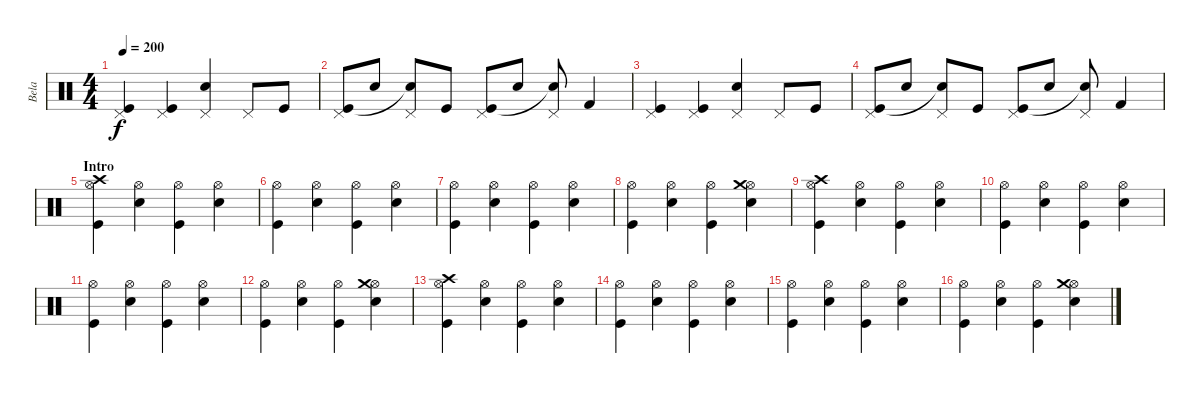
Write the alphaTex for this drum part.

\track ("Bela" "Bela") {instrument percussion}
\staff {score}
\articulation defaults
\ts (4 4)
\tempo 200
\clef neutral
\ks c
("Pedal Hi-Hat (hit)" "Kick (hit)").4{dy f} ("Pedal Hi-Hat (hit)" "Kick (hit)").4 ("Pedal Hi-Hat (hit)" "Electric Snare (hit)").4 "Pedal Hi-Hat (hit)".8 "Kick (hit)".8 |
("Pedal Hi-Hat (hit)" "Kick (hit)").8 "Electric Snare (hit)".8 ("Pedal Hi-Hat (hit)" "Electric Snare (hit)"{t}).8 "Kick (hit)".8 ("Pedal Hi-Hat (hit)" "Kick (hit)").8 "Electric Snare (hit)".8 ("Pedal Hi-Hat (hit)" "Electric Snare (hit)"{t}).8 "Kick (hit) 2".4 |
("Pedal Hi-Hat (hit)" "Kick (hit)").4 ("Pedal Hi-Hat (hit)" "Kick (hit)").4 ("Pedal Hi-Hat (hit)" "Electric Snare (hit)").4 "Pedal Hi-Hat (hit)".8 "Kick (hit)".8 |
("Pedal Hi-Hat (hit)" "Kick (hit)").8 "Electric Snare (hit)".8 ("Pedal Hi-Hat (hit)" "Electric Snare (hit)"{t}).8 "Kick (hit)".8 ("Pedal Hi-Hat (hit)" "Kick (hit)").8 "Electric Snare (hit)".8 ("Pedal Hi-Hat (hit)" "Electric Snare (hit)"{t}).8 "Kick (hit) 2".4 |
\section ("" "Intro")
("Hi-Hat (open)" "Crash high (hit)" "Kick (hit)").4 ("Hi-Hat (open)" "Electric Snare (hit)").4 ("Hi-Hat (open)" "Kick (hit)").4 ("Hi-Hat (open)" "Electric Snare (hit)").4 |
("Hi-Hat (open)" "Kick (hit)").4 ("Hi-Hat (open)" "Electric Snare (hit)").4 ("Hi-Hat (open)" "Kick (hit)").4 ("Hi-Hat (open)" "Electric Snare (hit)").4 |
("Hi-Hat (open)" "Kick (hit)").4 ("Hi-Hat (open)" "Electric Snare (hit)").4 ("Hi-Hat (open)" "Kick (hit)").4 ("Hi-Hat (open)" "Electric Snare (hit)").4 |
("Hi-Hat (open)" "Kick (hit)").4 ("Hi-Hat (open)" "Electric Snare (hit)").4 ("Hi-Hat (open)" "Kick (hit)").4 ("Hi-Hat (open)" "Crash medium (hit)" "Electric Snare (hit)").4 |
("Hi-Hat (open)" "Crash high (hit)" "Kick (hit)").4 ("Hi-Hat (open)" "Electric Snare (hit)").4 ("Hi-Hat (open)" "Kick (hit)").4 ("Hi-Hat (open)" "Electric Snare (hit)").4 |
("Hi-Hat (open)" "Kick (hit)").4 ("Hi-Hat (open)" "Electric Snare (hit)").4 ("Hi-Hat (open)" "Kick (hit)").4 ("Hi-Hat (open)" "Electric Snare (hit)").4 |
("Hi-Hat (open)" "Kick (hit)").4 ("Hi-Hat (open)" "Electric Snare (hit)").4 ("Hi-Hat (open)" "Kick (hit)").4 ("Hi-Hat (open)" "Electric Snare (hit)").4 |
("Hi-Hat (open)" "Kick (hit)").4 ("Hi-Hat (open)" "Electric Snare (hit)").4 ("Hi-Hat (open)" "Kick (hit)").4 ("Hi-Hat (open)" "Crash medium (hit)" "Electric Snare (hit)").4 |
("Hi-Hat (open)" "Crash high (hit)" "Kick (hit)").4 ("Hi-Hat (open)" "Electric Snare (hit)").4 ("Hi-Hat (open)" "Kick (hit)").4 ("Hi-Hat (open)" "Electric Snare (hit)").4 |
("Hi-Hat (open)" "Kick (hit)").4 ("Hi-Hat (open)" "Electric Snare (hit)").4 ("Hi-Hat (open)" "Kick (hit)").4 ("Hi-Hat (open)" "Electric Snare (hit)").4 |
("Hi-Hat (open)" "Kick (hit)").4 ("Hi-Hat (open)" "Electric Snare (hit)").4 ("Hi-Hat (open)" "Kick (hit)").4 ("Hi-Hat (open)" "Electric Snare (hit)").4 |
("Hi-Hat (open)" "Kick (hit)").4 ("Hi-Hat (open)" "Electric Snare (hit)").4 ("Hi-Hat (open)" "Kick (hit)").4 ("Hi-Hat (open)" "Crash medium (hit)" "Electric Snare (hit)").4
